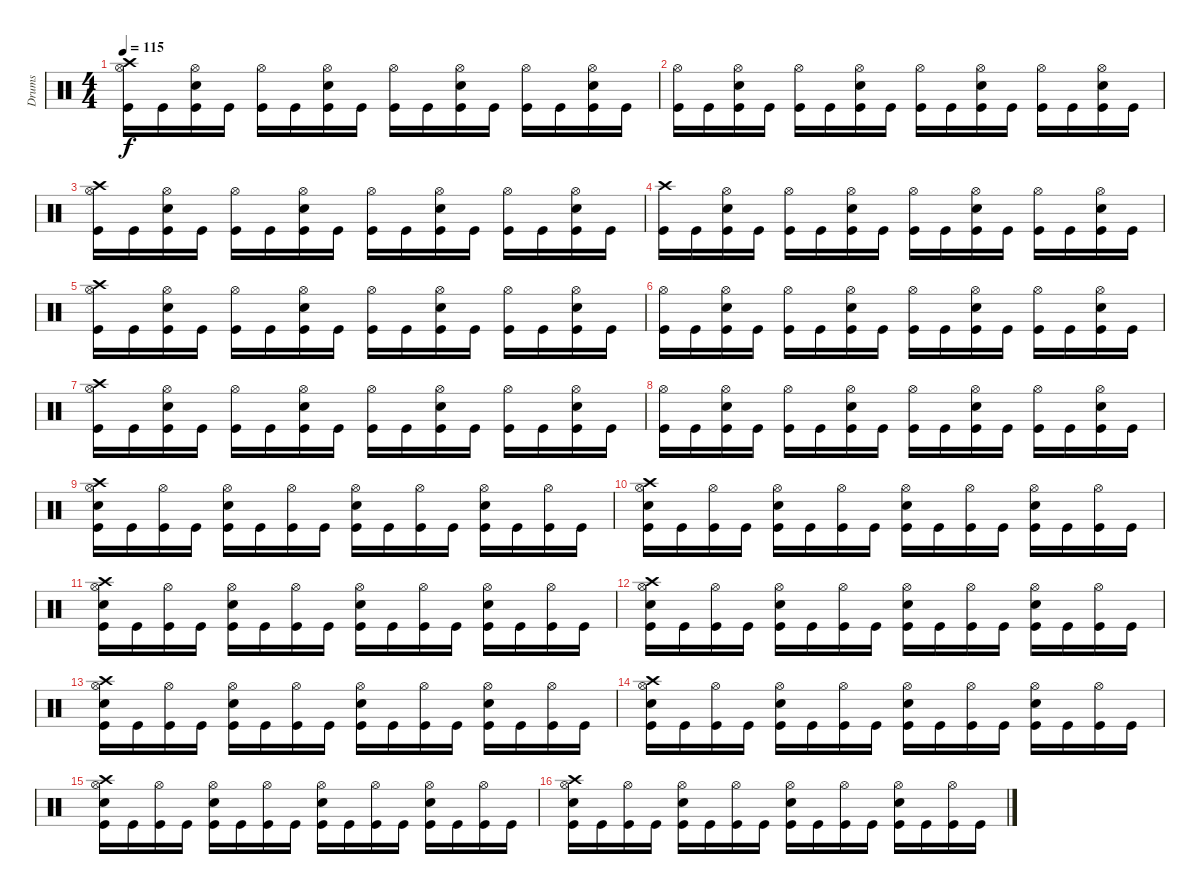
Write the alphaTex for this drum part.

\track ("Drums" "Drums") {instrument percussion}
\staff {score}
\articulation defaults
\ts (4 4)
\tempo 115
\clef neutral
\ks c
("Crash high (hit)" "Kick (hit)" "Hi-Hat (open)").16{dy f} "Kick (hit)".16 ("Kick (hit)" "Electric Snare (hit)" "Hi-Hat (open)").16 "Kick (hit)".16 ("Kick (hit)" "Hi-Hat (open)").16 "Kick (hit)".16 ("Kick (hit)" "Electric Snare (hit)" "Hi-Hat (open)").16 "Kick (hit)".16 ("Hi-Hat (open)" "Kick (hit)").16 "Kick (hit)".16 ("Kick (hit)" "Hi-Hat (open)" "Electric Snare (hit)").16 "Kick (hit)".16 ("Hi-Hat (open)" "Kick (hit)").16 "Kick (hit)".16 ("Kick (hit)" "Hi-Hat (open)" "Electric Snare (hit)").16 "Kick (hit)".16 |
("Kick (hit)" "Hi-Hat (open)").16 "Kick (hit)".16 ("Kick (hit)" "Electric Snare (hit)" "Hi-Hat (open)").16 "Kick (hit)".16 ("Kick (hit)" "Hi-Hat (open)").16 "Kick (hit)".16 ("Kick (hit)" "Electric Snare (hit)" "Hi-Hat (open)").16 "Kick (hit)".16 ("Hi-Hat (open)" "Kick (hit)").16 "Kick (hit)".16 ("Kick (hit)" "Hi-Hat (open)" "Electric Snare (hit)").16 "Kick (hit)".16 ("Hi-Hat (open)" "Kick (hit)").16 "Kick (hit)".16 ("Kick (hit)" "Hi-Hat (open)" "Electric Snare (hit)").16 "Kick (hit)".16 |
("Crash high (hit)" "Kick (hit)" "Hi-Hat (open)").16 "Kick (hit)".16 ("Kick (hit)" "Electric Snare (hit)" "Hi-Hat (open)").16 "Kick (hit)".16 ("Kick (hit)" "Hi-Hat (open)").16 "Kick (hit)".16 ("Kick (hit)" "Electric Snare (hit)" "Hi-Hat (open)").16 "Kick (hit)".16 ("Hi-Hat (open)" "Kick (hit)").16 "Kick (hit)".16 ("Kick (hit)" "Hi-Hat (open)" "Electric Snare (hit)").16 "Kick (hit)".16 ("Hi-Hat (open)" "Kick (hit)").16 "Kick (hit)".16 ("Kick (hit)" "Hi-Hat (open)" "Electric Snare (hit)").16 "Kick (hit)".16 |
("Crash high (hit)" "Kick (hit)").16 "Kick (hit)".16 ("Kick (hit)" "Electric Snare (hit)" "Hi-Hat (open)").16 "Kick (hit)".16 ("Kick (hit)" "Hi-Hat (open)").16 "Kick (hit)".16 ("Kick (hit)" "Electric Snare (hit)" "Hi-Hat (open)").16 "Kick (hit)".16 ("Hi-Hat (open)" "Kick (hit)").16 "Kick (hit)".16 ("Kick (hit)" "Hi-Hat (open)" "Electric Snare (hit)").16 "Kick (hit)".16 ("Hi-Hat (open)" "Kick (hit)").16 "Kick (hit)".16 ("Kick (hit)" "Hi-Hat (open)" "Electric Snare (hit)").16 "Kick (hit)".16 |
("Crash high (hit)" "Kick (hit)" "Hi-Hat (open)").16 "Kick (hit)".16 ("Kick (hit)" "Electric Snare (hit)" "Hi-Hat (open)").16 "Kick (hit)".16 ("Kick (hit)" "Hi-Hat (open)").16 "Kick (hit)".16 ("Kick (hit)" "Electric Snare (hit)" "Hi-Hat (open)").16 "Kick (hit)".16 ("Hi-Hat (open)" "Kick (hit)").16 "Kick (hit)".16 ("Kick (hit)" "Hi-Hat (open)" "Electric Snare (hit)").16 "Kick (hit)".16 ("Hi-Hat (open)" "Kick (hit)").16 "Kick (hit)".16 ("Kick (hit)" "Hi-Hat (open)" "Electric Snare (hit)").16 "Kick (hit)".16 |
("Kick (hit)" "Hi-Hat (open)").16 "Kick (hit)".16 ("Kick (hit)" "Electric Snare (hit)" "Hi-Hat (open)").16 "Kick (hit)".16 ("Kick (hit)" "Hi-Hat (open)").16 "Kick (hit)".16 ("Kick (hit)" "Electric Snare (hit)" "Hi-Hat (open)").16 "Kick (hit)".16 ("Hi-Hat (open)" "Kick (hit)").16 "Kick (hit)".16 ("Kick (hit)" "Hi-Hat (open)" "Electric Snare (hit)").16 "Kick (hit)".16 ("Hi-Hat (open)" "Kick (hit)").16 "Kick (hit)".16 ("Kick (hit)" "Hi-Hat (open)" "Electric Snare (hit)").16 "Kick (hit)".16 |
("Crash high (hit)" "Kick (hit)" "Hi-Hat (open)").16 "Kick (hit)".16 ("Kick (hit)" "Electric Snare (hit)" "Hi-Hat (open)").16 "Kick (hit)".16 ("Kick (hit)" "Hi-Hat (open)").16 "Kick (hit)".16 ("Kick (hit)" "Electric Snare (hit)" "Hi-Hat (open)").16 "Kick (hit)".16 ("Hi-Hat (open)" "Kick (hit)").16 "Kick (hit)".16 ("Kick (hit)" "Hi-Hat (open)" "Electric Snare (hit)").16 "Kick (hit)".16 ("Hi-Hat (open)" "Kick (hit)").16 "Kick (hit)".16 ("Kick (hit)" "Hi-Hat (open)" "Electric Snare (hit)").16 "Kick (hit)".16 |
("Kick (hit)" "Hi-Hat (open)").16 "Kick (hit)".16 ("Kick (hit)" "Electric Snare (hit)" "Hi-Hat (open)").16 "Kick (hit)".16 ("Kick (hit)" "Hi-Hat (open)").16 "Kick (hit)".16 ("Kick (hit)" "Electric Snare (hit)" "Hi-Hat (open)").16 "Kick (hit)".16 ("Hi-Hat (open)" "Kick (hit)").16 "Kick (hit)".16 ("Kick (hit)" "Hi-Hat (open)" "Electric Snare (hit)").16 "Kick (hit)".16 ("Hi-Hat (open)" "Kick (hit)").16 "Kick (hit)".16 ("Kick (hit)" "Hi-Hat (open)" "Electric Snare (hit)").16 "Kick (hit)".16 |
("Snare (hit) 2" "Crash high (hit)" "Kick (hit)" "Hi-Hat (open)").16 "Kick (hit)".16 ("Kick (hit)" "Hi-Hat (open)").16 "Kick (hit)".16 ("Snare (hit) 2" "Kick (hit)" "Hi-Hat (open)").16 "Kick (hit)".16 ("Kick (hit)" "Hi-Hat (open)").16 "Kick (hit)".16 ("Snare (hit) 2" "Hi-Hat (open)" "Kick (hit)").16 "Kick (hit)".16 ("Kick (hit)" "Hi-Hat (open)").16 "Kick (hit)".16 ("Snare (hit) 2" "Hi-Hat (open)" "Kick (hit)").16 "Kick (hit)".16 ("Kick (hit)" "Hi-Hat (open)").16 "Kick (hit)".16 |
("Snare (hit) 2" "Crash high (hit)" "Kick (hit)" "Hi-Hat (open)").16 "Kick (hit)".16 ("Kick (hit)" "Hi-Hat (open)").16 "Kick (hit)".16 ("Snare (hit) 2" "Kick (hit)" "Hi-Hat (open)").16 "Kick (hit)".16 ("Kick (hit)" "Hi-Hat (open)").16 "Kick (hit)".16 ("Snare (hit) 2" "Hi-Hat (open)" "Kick (hit)").16 "Kick (hit)".16 ("Kick (hit)" "Hi-Hat (open)").16 "Kick (hit)".16 ("Snare (hit) 2" "Hi-Hat (open)" "Kick (hit)").16 "Kick (hit)".16 ("Kick (hit)" "Hi-Hat (open)").16 "Kick (hit)".16 |
("Snare (hit) 2" "Crash high (hit)" "Kick (hit)" "Hi-Hat (open)").16 "Kick (hit)".16 ("Kick (hit)" "Hi-Hat (open)").16 "Kick (hit)".16 ("Snare (hit) 2" "Kick (hit)" "Hi-Hat (open)").16 "Kick (hit)".16 ("Kick (hit)" "Hi-Hat (open)").16 "Kick (hit)".16 ("Snare (hit) 2" "Hi-Hat (open)" "Kick (hit)").16 "Kick (hit)".16 ("Kick (hit)" "Hi-Hat (open)").16 "Kick (hit)".16 ("Snare (hit) 2" "Hi-Hat (open)" "Kick (hit)").16 "Kick (hit)".16 ("Kick (hit)" "Hi-Hat (open)").16 "Kick (hit)".16 |
("Snare (hit) 2" "Crash high (hit)" "Kick (hit)" "Hi-Hat (open)").16 "Kick (hit)".16 ("Kick (hit)" "Hi-Hat (open)").16 "Kick (hit)".16 ("Snare (hit) 2" "Kick (hit)" "Hi-Hat (open)").16 "Kick (hit)".16 ("Kick (hit)" "Hi-Hat (open)").16 "Kick (hit)".16 ("Snare (hit) 2" "Hi-Hat (open)" "Kick (hit)").16 "Kick (hit)".16 ("Kick (hit)" "Hi-Hat (open)").16 "Kick (hit)".16 ("Snare (hit) 2" "Hi-Hat (open)" "Kick (hit)").16 "Kick (hit)".16 ("Kick (hit)" "Hi-Hat (open)").16 "Kick (hit)".16 |
("Snare (hit) 2" "Crash high (hit)" "Kick (hit)" "Hi-Hat (open)").16 "Kick (hit)".16 ("Kick (hit)" "Hi-Hat (open)").16 "Kick (hit)".16 ("Snare (hit) 2" "Kick (hit)" "Hi-Hat (open)").16 "Kick (hit)".16 ("Kick (hit)" "Hi-Hat (open)").16 "Kick (hit)".16 ("Snare (hit) 2" "Hi-Hat (open)" "Kick (hit)").16 "Kick (hit)".16 ("Kick (hit)" "Hi-Hat (open)").16 "Kick (hit)".16 ("Snare (hit) 2" "Hi-Hat (open)" "Kick (hit)").16 "Kick (hit)".16 ("Kick (hit)" "Hi-Hat (open)").16 "Kick (hit)".16 |
("Snare (hit) 2" "Crash high (hit)" "Kick (hit)" "Hi-Hat (open)").16 "Kick (hit)".16 ("Kick (hit)" "Hi-Hat (open)").16 "Kick (hit)".16 ("Snare (hit) 2" "Kick (hit)" "Hi-Hat (open)").16 "Kick (hit)".16 ("Kick (hit)" "Hi-Hat (open)").16 "Kick (hit)".16 ("Snare (hit) 2" "Hi-Hat (open)" "Kick (hit)").16 "Kick (hit)".16 ("Kick (hit)" "Hi-Hat (open)").16 "Kick (hit)".16 ("Snare (hit) 2" "Hi-Hat (open)" "Kick (hit)").16 "Kick (hit)".16 ("Kick (hit)" "Hi-Hat (open)").16 "Kick (hit)".16 |
("Snare (hit) 2" "Crash high (hit)" "Kick (hit)" "Hi-Hat (open)").16 "Kick (hit)".16 ("Kick (hit)" "Hi-Hat (open)").16 "Kick (hit)".16 ("Snare (hit) 2" "Kick (hit)" "Hi-Hat (open)").16 "Kick (hit)".16 ("Kick (hit)" "Hi-Hat (open)").16 "Kick (hit)".16 ("Snare (hit) 2" "Hi-Hat (open)" "Kick (hit)").16 "Kick (hit)".16 ("Kick (hit)" "Hi-Hat (open)").16 "Kick (hit)".16 ("Snare (hit) 2" "Hi-Hat (open)" "Kick (hit)").16 "Kick (hit)".16 ("Kick (hit)" "Hi-Hat (open)").16 "Kick (hit)".16 |
("Snare (hit) 2" "Crash high (hit)" "Kick (hit)" "Hi-Hat (open)").16 "Kick (hit)".16 ("Kick (hit)" "Hi-Hat (open)").16 "Kick (hit)".16 ("Snare (hit) 2" "Kick (hit)" "Hi-Hat (open)").16 "Kick (hit)".16 ("Kick (hit)" "Hi-Hat (open)").16 "Kick (hit)".16 ("Snare (hit) 2" "Hi-Hat (open)" "Kick (hit)").16 "Kick (hit)".16 ("Kick (hit)" "Hi-Hat (open)").16 "Kick (hit)".16 ("Snare (hit) 2" "Hi-Hat (open)" "Kick (hit)").16 "Kick (hit)".16 ("Kick (hit)" "Hi-Hat (open)").16 "Kick (hit)".16
